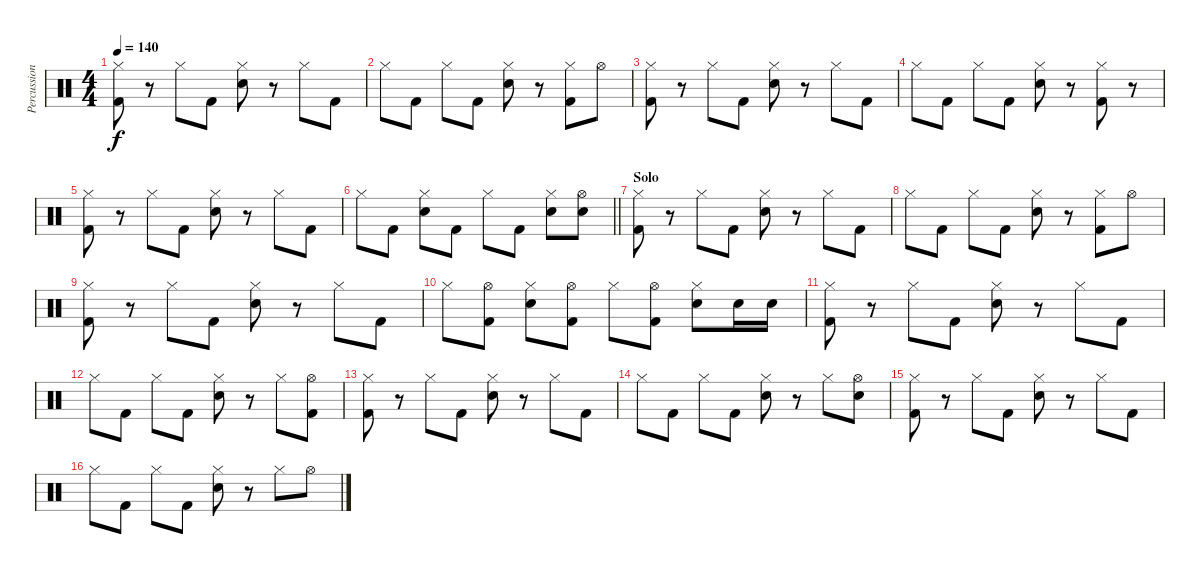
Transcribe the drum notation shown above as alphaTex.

\track ("Percussion" "Percussion") {instrument percussion}
\staff {score}
\articulation defaults
\ts (4 4)
\tempo 140
\clef neutral
\ks c
("Hi-Hat (closed)" "Kick (hit) 2").8{dy f} r.8 "Hi-Hat (closed)".8 "Kick (hit) 2".8 ("Hi-Hat (closed)" "Snare (hit) 2").8 r.8 "Hi-Hat (closed)".8 "Kick (hit) 2".8 |
"Hi-Hat (closed)".8 "Kick (hit) 2".8 "Hi-Hat (closed)".8 "Kick (hit) 2".8 ("Hi-Hat (closed)" "Snare (hit) 2").8 r.8 ("Hi-Hat (closed)" "Kick (hit) 2").8 "Hi-Hat (open)".8 |
("Hi-Hat (closed)" "Kick (hit) 2").8 r.8 "Hi-Hat (closed)".8 "Kick (hit) 2".8 ("Hi-Hat (closed)" "Snare (hit) 2").8 r.8 "Hi-Hat (closed)".8 "Kick (hit) 2".8 |
"Hi-Hat (closed)".8 "Kick (hit) 2".8 "Hi-Hat (closed)".8 "Kick (hit) 2".8 ("Hi-Hat (closed)" "Snare (hit) 2").8 r.8 ("Hi-Hat (closed)" "Kick (hit) 2").8 r.8 |
("Hi-Hat (closed)" "Kick (hit) 2").8 r.8 "Hi-Hat (closed)".8 "Kick (hit) 2".8 ("Hi-Hat (closed)" "Snare (hit) 2").8 r.8 "Hi-Hat (closed)".8 "Kick (hit) 2".8 |
\barLineRight lightlight "Hi-Hat (closed)".8 "Kick (hit) 2".8
("Hi-Hat (closed)" "Snare (hit) 2").8 "Kick (hit) 2".8 "Hi-Hat (closed)".8 "Kick (hit) 2".8 ("Hi-Hat (closed)" "Snare (hit) 2").8 ("Hi-Hat (open)" "Snare (hit) 2").8 |
\section ("" "Solo")
("Hi-Hat (closed)" "Kick (hit) 2").8 r.8 "Hi-Hat (closed)".8 "Kick (hit) 2".8 ("Hi-Hat (closed)" "Snare (hit) 2").8 r.8 "Hi-Hat (closed)".8 "Kick (hit) 2".8 |
"Hi-Hat (closed)".8 "Kick (hit) 2".8 "Hi-Hat (closed)".8 "Kick (hit) 2".8 ("Hi-Hat (closed)" "Snare (hit) 2").8 r.8 ("Hi-Hat (closed)" "Kick (hit) 2").8 "Hi-Hat (open)".8 |
("Hi-Hat (closed)" "Kick (hit) 2").8 r.8 "Hi-Hat (closed)".8 "Kick (hit) 2".8 ("Hi-Hat (closed)" "Snare (hit) 2").8 r.8 "Hi-Hat (closed)".8 "Kick (hit) 2".8 |
"Hi-Hat (closed)".8 ("Hi-Hat (open)" "Kick (hit) 2").8 ("Hi-Hat (closed)" "Snare (hit) 2").8 ("Hi-Hat (open)" "Kick (hit) 2").8 "Hi-Hat (closed)".8 ("Hi-Hat (open)" "Kick (hit) 2").8 ("Hi-Hat (closed)" "Snare (hit) 2").8 "Snare (hit) 2".16 "Snare (hit) 2".16 |
("Hi-Hat (closed)" "Kick (hit) 2").8 r.8 "Hi-Hat (closed)".8 "Kick (hit) 2".8 ("Hi-Hat (closed)" "Snare (hit) 2").8 r.8 "Hi-Hat (closed)".8 "Kick (hit) 2".8 |
"Hi-Hat (closed)".8 "Kick (hit) 2".8 "Hi-Hat (closed)".8 "Kick (hit) 2".8 ("Hi-Hat (closed)" "Snare (hit) 2").8 r.8 "Hi-Hat (closed)".8 ("Hi-Hat (open)" "Kick (hit) 2").8 |
("Hi-Hat (closed)" "Kick (hit) 2").8 r.8 "Hi-Hat (closed)".8 "Kick (hit) 2".8 ("Hi-Hat (closed)" "Snare (hit) 2").8 r.8 "Hi-Hat (closed)".8 "Kick (hit) 2".8 |
"Hi-Hat (closed)".8 "Kick (hit) 2".8 "Hi-Hat (closed)".8 "Kick (hit) 2".8 ("Hi-Hat (closed)" "Snare (hit) 2").8 r.8 "Hi-Hat (closed)".8 ("Hi-Hat (open)" "Snare (hit) 2").8 |
("Hi-Hat (closed)" "Kick (hit) 2").8 r.8 "Hi-Hat (closed)".8 "Kick (hit) 2".8 ("Hi-Hat (closed)" "Snare (hit) 2").8 r.8 "Hi-Hat (closed)".8 "Kick (hit) 2".8 |
"Hi-Hat (closed)".8 "Kick (hit) 2".8 "Hi-Hat (closed)".8 "Kick (hit) 2".8 ("Hi-Hat (closed)" "Snare (hit) 2").8 r.8 "Hi-Hat (closed)".8 "Hi-Hat (open)".8
